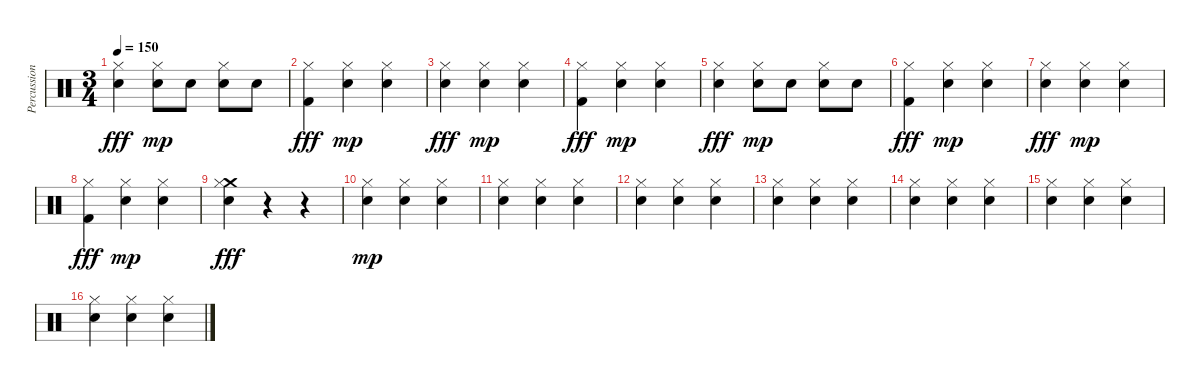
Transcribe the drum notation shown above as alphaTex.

\track ("Percussion" "Percussion") {instrument percussion}
\staff {score}
\articulation defaults
\ts (3 4)
\tempo 150
\clef neutral
\ks c
("Hi-Hat (closed)" "Electric Snare (hit)").4{dy fff} ("Hi-Hat (closed)" "Electric Snare (hit)").8{dy mp} "Electric Snare (hit)".8 ("Hi-Hat (closed)" "Electric Snare (hit)").8 "Electric Snare (hit)".8 |
("Hi-Hat (closed)" "Kick (hit) 2").4{dy fff} ("Hi-Hat (closed)" "Electric Snare (hit)").4{dy mp} ("Hi-Hat (closed)" "Electric Snare (hit)").4 |
("Hi-Hat (closed)" "Electric Snare (hit)").4{dy fff} ("Hi-Hat (closed)" "Electric Snare (hit)").4{dy mp} ("Hi-Hat (closed)" "Electric Snare (hit)").4 |
("Hi-Hat (closed)" "Kick (hit) 2").4{dy fff} ("Hi-Hat (closed)" "Electric Snare (hit)").4{dy mp} ("Hi-Hat (closed)" "Electric Snare (hit)").4 |
("Hi-Hat (closed)" "Electric Snare (hit)").4{dy fff} ("Hi-Hat (closed)" "Electric Snare (hit)").8{dy mp} "Electric Snare (hit)".8 ("Hi-Hat (closed)" "Electric Snare (hit)").8 "Electric Snare (hit)".8 |
("Hi-Hat (closed)" "Kick (hit) 2").4{dy fff} ("Hi-Hat (closed)" "Electric Snare (hit)").4{dy mp} ("Hi-Hat (closed)" "Electric Snare (hit)").4 |
("Hi-Hat (closed)" "Electric Snare (hit)").4{dy fff} ("Hi-Hat (closed)" "Electric Snare (hit)").4{dy mp} ("Hi-Hat (closed)" "Electric Snare (hit)").4 |
("Hi-Hat (closed)" "Kick (hit) 2").4{dy fff} ("Hi-Hat (closed)" "Electric Snare (hit)").4{dy mp} ("Hi-Hat (closed)" "Electric Snare (hit)").4 |
("Crash medium (hit)" "Hi-Hat (closed)" "Electric Snare (hit)").4{dy fff} r.4 r.4 |
("Hi-Hat (closed)" "Electric Snare (hit)").4{dy mp} ("Hi-Hat (closed)" "Electric Snare (hit)").4 ("Hi-Hat (closed)" "Electric Snare (hit)").4 |
("Hi-Hat (closed)" "Electric Snare (hit)").4 ("Hi-Hat (closed)" "Electric Snare (hit)").4 ("Hi-Hat (closed)" "Electric Snare (hit)").4 |
("Hi-Hat (closed)" "Electric Snare (hit)").4 ("Hi-Hat (closed)" "Electric Snare (hit)").4 ("Hi-Hat (closed)" "Electric Snare (hit)").4 |
("Hi-Hat (closed)" "Electric Snare (hit)").4 ("Hi-Hat (closed)" "Electric Snare (hit)").4 ("Hi-Hat (closed)" "Electric Snare (hit)").4 |
("Hi-Hat (closed)" "Electric Snare (hit)").4 ("Hi-Hat (closed)" "Electric Snare (hit)").4 ("Hi-Hat (closed)" "Electric Snare (hit)").4 |
("Hi-Hat (closed)" "Electric Snare (hit)").4 ("Hi-Hat (closed)" "Electric Snare (hit)").4 ("Hi-Hat (closed)" "Electric Snare (hit)").4 |
("Hi-Hat (closed)" "Electric Snare (hit)").4 ("Hi-Hat (closed)" "Electric Snare (hit)").4 ("Hi-Hat (closed)" "Electric Snare (hit)").4
